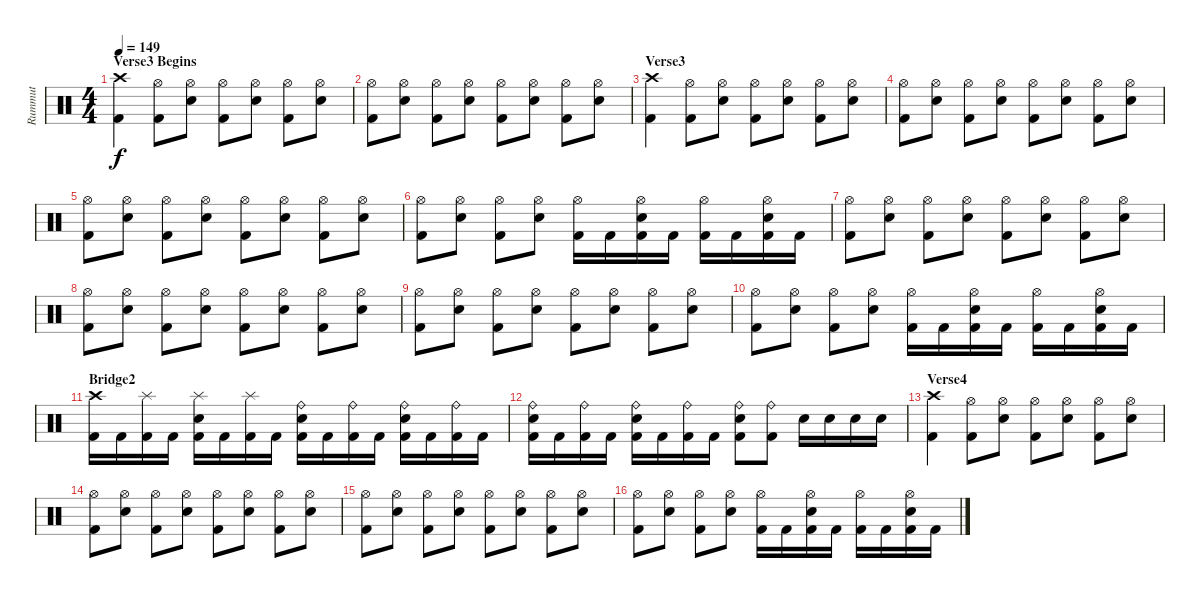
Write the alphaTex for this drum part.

\track ("Rummut" "Rummut") {instrument percussion}
\staff {score}
\articulation defaults
\ts (4 4)
\section ("" "Verse3 Begins")
\tempo 149
\clef neutral
\ks c
("Crash high (hit)" "Kick (hit) 2").4{dy f} ("Hi-Hat (open)" "Kick (hit) 2").8 ("Hi-Hat (open)" "Electric Snare (hit)").8 ("Hi-Hat (open)" "Kick (hit) 2").8 ("Hi-Hat (open)" "Electric Snare (hit)").8 ("Hi-Hat (open)" "Kick (hit) 2").8 ("Hi-Hat (open)" "Electric Snare (hit)").8 |
("Hi-Hat (open)" "Kick (hit) 2").8 ("Hi-Hat (open)" "Electric Snare (hit)").8 ("Hi-Hat (open)" "Kick (hit) 2").8 ("Hi-Hat (open)" "Electric Snare (hit)").8 ("Hi-Hat (open)" "Kick (hit) 2").8 ("Hi-Hat (open)" "Electric Snare (hit)").8 ("Hi-Hat (open)" "Kick (hit) 2").8 ("Hi-Hat (open)" "Electric Snare (hit)").8 |
\section ("" "Verse3")
("Crash high (hit)" "Kick (hit) 2").4 ("Hi-Hat (open)" "Kick (hit) 2").8 ("Hi-Hat (open)" "Electric Snare (hit)").8 ("Hi-Hat (open)" "Kick (hit) 2").8 ("Hi-Hat (open)" "Electric Snare (hit)").8 ("Hi-Hat (open)" "Kick (hit) 2").8 ("Hi-Hat (open)" "Electric Snare (hit)").8 |
("Hi-Hat (open)" "Kick (hit) 2").8 ("Hi-Hat (open)" "Electric Snare (hit)").8 ("Hi-Hat (open)" "Kick (hit) 2").8 ("Hi-Hat (open)" "Electric Snare (hit)").8 ("Hi-Hat (open)" "Kick (hit) 2").8 ("Hi-Hat (open)" "Electric Snare (hit)").8 ("Hi-Hat (open)" "Kick (hit) 2").8 ("Hi-Hat (open)" "Electric Snare (hit)").8 |
("Hi-Hat (open)" "Kick (hit) 2").8 ("Hi-Hat (open)" "Electric Snare (hit)").8 ("Hi-Hat (open)" "Kick (hit) 2").8 ("Hi-Hat (open)" "Electric Snare (hit)").8 ("Hi-Hat (open)" "Kick (hit) 2").8 ("Hi-Hat (open)" "Electric Snare (hit)").8 ("Hi-Hat (open)" "Kick (hit) 2").8 ("Hi-Hat (open)" "Electric Snare (hit)").8 |
("Hi-Hat (open)" "Kick (hit) 2").8 ("Hi-Hat (open)" "Electric Snare (hit)").8 ("Hi-Hat (open)" "Kick (hit) 2").8 ("Hi-Hat (open)" "Electric Snare (hit)").8 ("Hi-Hat (open)" "Kick (hit) 2").16 "Kick (hit) 2".16 ("Hi-Hat (open)" "Electric Snare (hit)" "Kick (hit) 2").16 "Kick (hit) 2".16 ("Hi-Hat (open)" "Kick (hit) 2").16 "Kick (hit) 2".16 ("Hi-Hat (open)" "Electric Snare (hit)" "Kick (hit) 2").16 "Kick (hit) 2".16 |
("Hi-Hat (open)" "Kick (hit) 2").8 ("Hi-Hat (open)" "Electric Snare (hit)").8 ("Hi-Hat (open)" "Kick (hit) 2").8 ("Hi-Hat (open)" "Electric Snare (hit)").8 ("Hi-Hat (open)" "Kick (hit) 2").8 ("Hi-Hat (open)" "Electric Snare (hit)").8 ("Hi-Hat (open)" "Kick (hit) 2").8 ("Hi-Hat (open)" "Electric Snare (hit)").8 |
("Hi-Hat (open)" "Kick (hit) 2").8 ("Hi-Hat (open)" "Electric Snare (hit)").8 ("Hi-Hat (open)" "Kick (hit) 2").8 ("Hi-Hat (open)" "Electric Snare (hit)").8 ("Hi-Hat (open)" "Kick (hit) 2").8 ("Hi-Hat (open)" "Electric Snare (hit)").8 ("Hi-Hat (open)" "Kick (hit) 2").8 ("Hi-Hat (open)" "Electric Snare (hit)").8 |
("Hi-Hat (open)" "Kick (hit) 2").8 ("Hi-Hat (open)" "Electric Snare (hit)").8 ("Hi-Hat (open)" "Kick (hit) 2").8 ("Hi-Hat (open)" "Electric Snare (hit)").8 ("Hi-Hat (open)" "Kick (hit) 2").8 ("Hi-Hat (open)" "Electric Snare (hit)").8 ("Hi-Hat (open)" "Kick (hit) 2").8 ("Hi-Hat (open)" "Electric Snare (hit)").8 |
("Hi-Hat (open)" "Kick (hit) 2").8 ("Hi-Hat (open)" "Electric Snare (hit)").8 ("Hi-Hat (open)" "Kick (hit) 2").8 ("Hi-Hat (open)" "Electric Snare (hit)").8 ("Hi-Hat (open)" "Kick (hit) 2").16 "Kick (hit) 2".16 ("Hi-Hat (open)" "Electric Snare (hit)" "Kick (hit) 2").16 "Kick (hit) 2".16 ("Hi-Hat (open)" "Kick (hit) 2").16 "Kick (hit) 2".16 ("Hi-Hat (open)" "Electric Snare (hit)" "Kick (hit) 2").16 "Kick (hit) 2".16 |
\section ("" "Bridge2")
("Crash high (hit)" "Kick (hit) 2").16 "Kick (hit) 2".16 ("Splash (hit)" "Kick (hit) 2").16 "Kick (hit) 2".16 ("Splash (hit)" "Electric Snare (hit)" "Kick (hit) 2").16 "Kick (hit) 2".16 ("Splash (hit)" "Kick (hit) 2").16 "Kick (hit) 2".16 ("Ride (bell)" "Electric Snare (hit)" "Kick (hit) 2").16 "Kick (hit) 2".16 ("Ride (bell)" "Kick (hit) 2").16 "Kick (hit) 2".16 ("Ride (bell)" "Electric Snare (hit)" "Kick (hit) 2").16 "Kick (hit) 2".16 ("Ride (bell)" "Kick (hit) 2").16 "Kick (hit) 2".16 |
("Ride (bell)" "Electric Snare (hit)" "Kick (hit) 2").16 "Kick (hit) 2".16 ("Ride (bell)" "Kick (hit) 2").16 "Kick (hit) 2".16 ("Ride (bell)" "Electric Snare (hit)" "Kick (hit) 2").16 "Kick (hit) 2".16 ("Ride (bell)" "Kick (hit) 2").16 "Kick (hit) 2".16 ("Ride (bell)" "Electric Snare (hit)" "Kick (hit) 2").8 ("Ride (bell)" "Kick (hit) 2").8 "Electric Snare (hit)".16 "Electric Snare (hit)".16 "Electric Snare (hit)".16 "Electric Snare (hit)".16 |
\section ("" "Verse4")
("Crash high (hit)" "Kick (hit) 2").4 ("Hi-Hat (open)" "Kick (hit) 2").8 ("Hi-Hat (open)" "Electric Snare (hit)").8 ("Hi-Hat (open)" "Kick (hit) 2").8 ("Hi-Hat (open)" "Electric Snare (hit)").8 ("Hi-Hat (open)" "Kick (hit) 2").8 ("Hi-Hat (open)" "Electric Snare (hit)").8 |
("Hi-Hat (open)" "Kick (hit) 2").8 ("Hi-Hat (open)" "Electric Snare (hit)").8 ("Hi-Hat (open)" "Kick (hit) 2").8 ("Hi-Hat (open)" "Electric Snare (hit)").8 ("Hi-Hat (open)" "Kick (hit) 2").8 ("Hi-Hat (open)" "Electric Snare (hit)").8 ("Hi-Hat (open)" "Kick (hit) 2").8 ("Hi-Hat (open)" "Electric Snare (hit)").8 |
("Hi-Hat (open)" "Kick (hit) 2").8 ("Hi-Hat (open)" "Electric Snare (hit)").8 ("Hi-Hat (open)" "Kick (hit) 2").8 ("Hi-Hat (open)" "Electric Snare (hit)").8 ("Hi-Hat (open)" "Kick (hit) 2").8 ("Hi-Hat (open)" "Electric Snare (hit)").8 ("Hi-Hat (open)" "Kick (hit) 2").8 ("Hi-Hat (open)" "Electric Snare (hit)").8 |
("Hi-Hat (open)" "Kick (hit) 2").8 ("Hi-Hat (open)" "Electric Snare (hit)").8 ("Hi-Hat (open)" "Kick (hit) 2").8 ("Hi-Hat (open)" "Electric Snare (hit)").8 ("Hi-Hat (open)" "Kick (hit) 2").16 "Kick (hit) 2".16 ("Hi-Hat (open)" "Electric Snare (hit)" "Kick (hit) 2").16 "Kick (hit) 2".16 ("Hi-Hat (open)" "Kick (hit) 2").16 "Kick (hit) 2".16 ("Hi-Hat (open)" "Electric Snare (hit)" "Kick (hit) 2").16 "Kick (hit) 2".16
